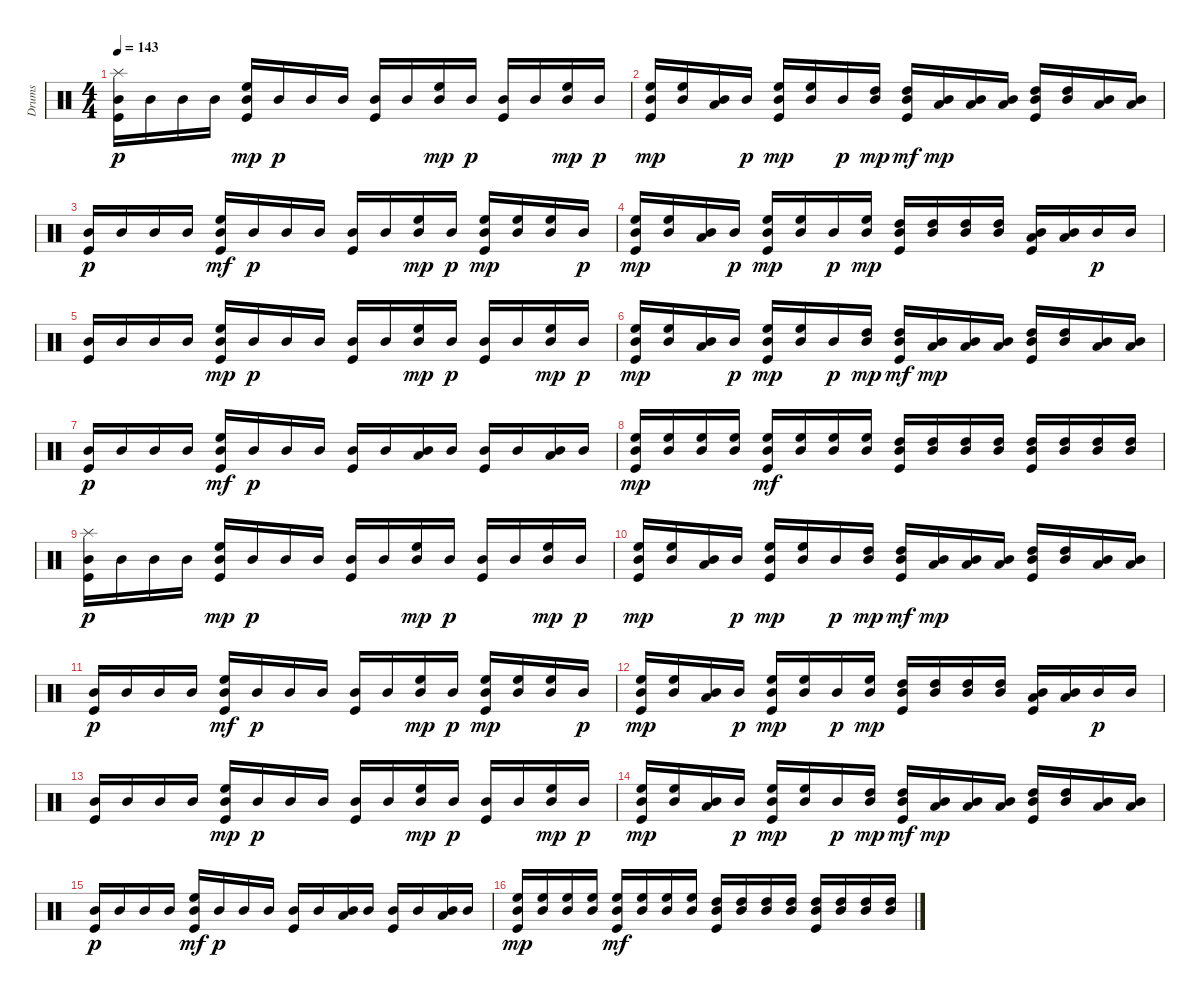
\track ("Drums" "Drums") {instrument percussion}
\staff {score}
\articulation defaults
\ts (4 4)
\tempo 143
\clef neutral
\ks c
("Kick (hit)" "Mid Tom (hit)" "Splash (hit)").16{dy p} "Mid Tom (hit)".16 "Mid Tom (hit)".16 "Mid Tom (hit)".16 ("Kick (hit)" "Mid Tom (hit)" "High Floor Tom (hit)").16{dy mp} "Mid Tom (hit)".16{dy p} "Mid Tom (hit)".16 "Mid Tom (hit)".16 ("Kick (hit)" "Mid Tom (hit)").16 "Mid Tom (hit)".16 ("Mid Tom (hit)" "High Floor Tom (hit)").16{dy mp} "Mid Tom (hit)".16{dy p} ("Kick (hit)" "Mid Tom (hit)").16 "Mid Tom (hit)".16 ("Mid Tom (hit)" "High Floor Tom (hit)").16{dy mp} "Mid Tom (hit)".16{dy p} |
("Kick (hit)" "Mid Tom (hit)" "High Floor Tom (hit)").16{dy mp} ("Mid Tom (hit)" "High Floor Tom (hit)").16 ("Mid Tom (hit)" "Low Tom (hit)").16 "Mid Tom (hit)".16{dy p} ("Kick (hit)" "Mid Tom (hit)" "High Floor Tom (hit)").16{dy mp} ("Mid Tom (hit)" "High Floor Tom (hit)").16 "Mid Tom (hit)".16{dy p} ("Mid Tom (hit)" "High Tom (hit)").16{dy mp} ("Kick (hit)" "Mid Tom (hit)" "High Tom (hit)").16{dy mf} ("Mid Tom (hit)" "Low Tom (hit)").16{dy mp} ("Mid Tom (hit)" "Low Tom (hit)").16 ("Mid Tom (hit)" "Low Tom (hit)").16 ("Kick (hit)" "Mid Tom (hit)" "High Tom (hit)").16 ("Mid Tom (hit)" "High Tom (hit)").16 ("Mid Tom (hit)" "Low Tom (hit)").16 ("Mid Tom (hit)" "Low Tom (hit)").16 |
("Kick (hit)" "Mid Tom (hit)").16{dy p} "Mid Tom (hit)".16 "Mid Tom (hit)".16 "Mid Tom (hit)".16 ("Kick (hit)" "Mid Tom (hit)" "High Floor Tom (hit)").16{dy mf} "Mid Tom (hit)".16{dy p} "Mid Tom (hit)".16 "Mid Tom (hit)".16 ("Kick (hit)" "Mid Tom (hit)").16 "Mid Tom (hit)".16 ("Mid Tom (hit)" "High Floor Tom (hit)").16{dy mp} "Mid Tom (hit)".16{dy p} ("Kick (hit)" "Mid Tom (hit)" "High Floor Tom (hit)").16{dy mp} ("Mid Tom (hit)" "High Floor Tom (hit)").16 ("Mid Tom (hit)" "High Floor Tom (hit)").16 "Mid Tom (hit)".16{dy p} |
("Kick (hit)" "Mid Tom (hit)" "High Floor Tom (hit)").16{dy mp} ("Mid Tom (hit)" "High Floor Tom (hit)").16 ("Mid Tom (hit)" "Low Tom (hit)").16 "Mid Tom (hit)".16{dy p} ("Kick (hit)" "Mid Tom (hit)" "High Floor Tom (hit)").16{dy mp} ("Mid Tom (hit)" "High Floor Tom (hit)").16 "Mid Tom (hit)".16{dy p} ("Mid Tom (hit)" "High Floor Tom (hit)").16{dy mp} ("Kick (hit)" "Mid Tom (hit)" "High Tom (hit)").16 ("Mid Tom (hit)" "High Tom (hit)").16 ("Mid Tom (hit)" "High Tom (hit)").16 ("Mid Tom (hit)" "High Tom (hit)").16 ("Kick (hit)" "Mid Tom (hit)" "Low Tom (hit)").16 ("Mid Tom (hit)" "Low Tom (hit)").16 "Mid Tom (hit)".16{dy p} "Mid Tom (hit)".16 |
("Kick (hit)" "Mid Tom (hit)").16 "Mid Tom (hit)".16 "Mid Tom (hit)".16 "Mid Tom (hit)".16 ("Kick (hit)" "Mid Tom (hit)" "High Floor Tom (hit)").16{dy mp} "Mid Tom (hit)".16{dy p} "Mid Tom (hit)".16 "Mid Tom (hit)".16 ("Kick (hit)" "Mid Tom (hit)").16 "Mid Tom (hit)".16 ("Mid Tom (hit)" "High Floor Tom (hit)").16{dy mp} "Mid Tom (hit)".16{dy p} ("Kick (hit)" "Mid Tom (hit)").16 "Mid Tom (hit)".16 ("Mid Tom (hit)" "High Floor Tom (hit)").16{dy mp} "Mid Tom (hit)".16{dy p} |
("Kick (hit)" "Mid Tom (hit)" "High Floor Tom (hit)").16{dy mp} ("Mid Tom (hit)" "High Floor Tom (hit)").16 ("Mid Tom (hit)" "Low Tom (hit)").16 "Mid Tom (hit)".16{dy p} ("Kick (hit)" "Mid Tom (hit)" "High Floor Tom (hit)").16{dy mp} ("Mid Tom (hit)" "High Floor Tom (hit)").16 "Mid Tom (hit)".16{dy p} ("Mid Tom (hit)" "High Tom (hit)").16{dy mp} ("Kick (hit)" "Mid Tom (hit)" "High Tom (hit)").16{dy mf} ("Mid Tom (hit)" "Low Tom (hit)").16{dy mp} ("Mid Tom (hit)" "Low Tom (hit)").16 ("Mid Tom (hit)" "Low Tom (hit)").16 ("Kick (hit)" "Mid Tom (hit)" "High Tom (hit)").16 ("Mid Tom (hit)" "High Tom (hit)").16 ("Mid Tom (hit)" "Low Tom (hit)").16 ("Mid Tom (hit)" "Low Tom (hit)").16 |
("Kick (hit)" "Mid Tom (hit)").16{dy p} "Mid Tom (hit)".16 "Mid Tom (hit)".16 "Mid Tom (hit)".16 ("Kick (hit)" "Mid Tom (hit)" "High Floor Tom (hit)").16{dy mf} "Mid Tom (hit)".16{dy p} "Mid Tom (hit)".16 "Mid Tom (hit)".16 ("Kick (hit)" "Mid Tom (hit)").16 "Mid Tom (hit)".16 ("Mid Tom (hit)" "Low Tom (hit)").16 "Mid Tom (hit)".16 ("Kick (hit)" "Mid Tom (hit)").16 "Mid Tom (hit)".16 ("Mid Tom (hit)" "Low Tom (hit)").16 "Mid Tom (hit)".16 |
("Kick (hit)" "Mid Tom (hit)" "High Floor Tom (hit)").16{dy mp} ("Mid Tom (hit)" "High Floor Tom (hit)").16 ("Mid Tom (hit)" "High Floor Tom (hit)").16 ("Mid Tom (hit)" "High Floor Tom (hit)").16 ("Kick (hit)" "Mid Tom (hit)" "High Floor Tom (hit)").16{dy mf} ("Mid Tom (hit)" "High Floor Tom (hit)").16 ("Mid Tom (hit)" "High Floor Tom (hit)").16 ("Mid Tom (hit)" "High Floor Tom (hit)").16 ("Kick (hit)" "Mid Tom (hit)" "High Tom (hit)").16 ("Mid Tom (hit)" "High Tom (hit)").16 ("Mid Tom (hit)" "High Tom (hit)").16 ("Mid Tom (hit)" "High Tom (hit)").16 ("Kick (hit)" "Mid Tom (hit)" "High Tom (hit)").16 ("Mid Tom (hit)" "High Tom (hit)").16 ("Mid Tom (hit)" "High Tom (hit)").16 ("Mid Tom (hit)" "High Tom (hit)").16 |
("Kick (hit)" "Mid Tom (hit)" "Splash (hit)").16{dy p} "Mid Tom (hit)".16 "Mid Tom (hit)".16 "Mid Tom (hit)".16 ("Kick (hit)" "Mid Tom (hit)" "High Floor Tom (hit)").16{dy mp} "Mid Tom (hit)".16{dy p} "Mid Tom (hit)".16 "Mid Tom (hit)".16 ("Kick (hit)" "Mid Tom (hit)").16 "Mid Tom (hit)".16 ("Mid Tom (hit)" "High Floor Tom (hit)").16{dy mp} "Mid Tom (hit)".16{dy p} ("Kick (hit)" "Mid Tom (hit)").16 "Mid Tom (hit)".16 ("Mid Tom (hit)" "High Floor Tom (hit)").16{dy mp} "Mid Tom (hit)".16{dy p} |
("Kick (hit)" "Mid Tom (hit)" "High Floor Tom (hit)").16{dy mp} ("Mid Tom (hit)" "High Floor Tom (hit)").16 ("Mid Tom (hit)" "Low Tom (hit)").16 "Mid Tom (hit)".16{dy p} ("Kick (hit)" "Mid Tom (hit)" "High Floor Tom (hit)").16{dy mp} ("Mid Tom (hit)" "High Floor Tom (hit)").16 "Mid Tom (hit)".16{dy p} ("Mid Tom (hit)" "High Tom (hit)").16{dy mp} ("Kick (hit)" "Mid Tom (hit)" "High Tom (hit)").16{dy mf} ("Mid Tom (hit)" "Low Tom (hit)").16{dy mp} ("Mid Tom (hit)" "Low Tom (hit)").16 ("Mid Tom (hit)" "Low Tom (hit)").16 ("Kick (hit)" "Mid Tom (hit)" "High Tom (hit)").16 ("Mid Tom (hit)" "High Tom (hit)").16 ("Mid Tom (hit)" "Low Tom (hit)").16 ("Mid Tom (hit)" "Low Tom (hit)").16 |
("Kick (hit)" "Mid Tom (hit)").16{dy p} "Mid Tom (hit)".16 "Mid Tom (hit)".16 "Mid Tom (hit)".16 ("Kick (hit)" "Mid Tom (hit)" "High Floor Tom (hit)").16{dy mf} "Mid Tom (hit)".16{dy p} "Mid Tom (hit)".16 "Mid Tom (hit)".16 ("Kick (hit)" "Mid Tom (hit)").16 "Mid Tom (hit)".16 ("Mid Tom (hit)" "High Floor Tom (hit)").16{dy mp} "Mid Tom (hit)".16{dy p} ("Kick (hit)" "Mid Tom (hit)" "High Floor Tom (hit)").16{dy mp} ("Mid Tom (hit)" "High Floor Tom (hit)").16 ("Mid Tom (hit)" "High Floor Tom (hit)").16 "Mid Tom (hit)".16{dy p} |
("Kick (hit)" "Mid Tom (hit)" "High Floor Tom (hit)").16{dy mp} ("Mid Tom (hit)" "High Floor Tom (hit)").16 ("Mid Tom (hit)" "Low Tom (hit)").16 "Mid Tom (hit)".16{dy p} ("Kick (hit)" "Mid Tom (hit)" "High Floor Tom (hit)").16{dy mp} ("Mid Tom (hit)" "High Floor Tom (hit)").16 "Mid Tom (hit)".16{dy p} ("Mid Tom (hit)" "High Floor Tom (hit)").16{dy mp} ("Kick (hit)" "Mid Tom (hit)" "High Tom (hit)").16 ("Mid Tom (hit)" "High Tom (hit)").16 ("Mid Tom (hit)" "High Tom (hit)").16 ("Mid Tom (hit)" "High Tom (hit)").16 ("Kick (hit)" "Mid Tom (hit)" "Low Tom (hit)").16 ("Mid Tom (hit)" "Low Tom (hit)").16 "Mid Tom (hit)".16{dy p} "Mid Tom (hit)".16 |
("Kick (hit)" "Mid Tom (hit)").16 "Mid Tom (hit)".16 "Mid Tom (hit)".16 "Mid Tom (hit)".16 ("Kick (hit)" "Mid Tom (hit)" "High Floor Tom (hit)").16{dy mp} "Mid Tom (hit)".16{dy p} "Mid Tom (hit)".16 "Mid Tom (hit)".16 ("Kick (hit)" "Mid Tom (hit)").16 "Mid Tom (hit)".16 ("Mid Tom (hit)" "High Floor Tom (hit)").16{dy mp} "Mid Tom (hit)".16{dy p} ("Kick (hit)" "Mid Tom (hit)").16 "Mid Tom (hit)".16 ("Mid Tom (hit)" "High Floor Tom (hit)").16{dy mp} "Mid Tom (hit)".16{dy p} |
("Kick (hit)" "Mid Tom (hit)" "High Floor Tom (hit)").16{dy mp} ("Mid Tom (hit)" "High Floor Tom (hit)").16 ("Mid Tom (hit)" "Low Tom (hit)").16 "Mid Tom (hit)".16{dy p} ("Kick (hit)" "Mid Tom (hit)" "High Floor Tom (hit)").16{dy mp} ("Mid Tom (hit)" "High Floor Tom (hit)").16 "Mid Tom (hit)".16{dy p} ("Mid Tom (hit)" "High Tom (hit)").16{dy mp} ("Kick (hit)" "Mid Tom (hit)" "High Tom (hit)").16{dy mf} ("Mid Tom (hit)" "Low Tom (hit)").16{dy mp} ("Mid Tom (hit)" "Low Tom (hit)").16 ("Mid Tom (hit)" "Low Tom (hit)").16 ("Kick (hit)" "Mid Tom (hit)" "High Tom (hit)").16 ("Mid Tom (hit)" "High Tom (hit)").16 ("Mid Tom (hit)" "Low Tom (hit)").16 ("Mid Tom (hit)" "Low Tom (hit)").16 |
("Kick (hit)" "Mid Tom (hit)").16{dy p} "Mid Tom (hit)".16 "Mid Tom (hit)".16 "Mid Tom (hit)".16 ("Kick (hit)" "Mid Tom (hit)" "High Floor Tom (hit)").16{dy mf} "Mid Tom (hit)".16{dy p} "Mid Tom (hit)".16 "Mid Tom (hit)".16 ("Kick (hit)" "Mid Tom (hit)").16 "Mid Tom (hit)".16 ("Mid Tom (hit)" "Low Tom (hit)").16 "Mid Tom (hit)".16 ("Kick (hit)" "Mid Tom (hit)").16 "Mid Tom (hit)".16 ("Mid Tom (hit)" "Low Tom (hit)").16 "Mid Tom (hit)".16 |
("Kick (hit)" "Mid Tom (hit)" "High Floor Tom (hit)").16{dy mp} ("Mid Tom (hit)" "High Floor Tom (hit)").16 ("Mid Tom (hit)" "High Floor Tom (hit)").16 ("Mid Tom (hit)" "High Floor Tom (hit)").16 ("Kick (hit)" "Mid Tom (hit)" "High Floor Tom (hit)").16{dy mf} ("Mid Tom (hit)" "High Floor Tom (hit)").16 ("Mid Tom (hit)" "High Floor Tom (hit)").16 ("Mid Tom (hit)" "High Floor Tom (hit)").16 ("Kick (hit)" "Mid Tom (hit)" "High Tom (hit)").16 ("Mid Tom (hit)" "High Tom (hit)").16 ("Mid Tom (hit)" "High Tom (hit)").16 ("Mid Tom (hit)" "High Tom (hit)").16 ("Kick (hit)" "Mid Tom (hit)" "High Tom (hit)").16 ("Mid Tom (hit)" "High Tom (hit)").16 ("Mid Tom (hit)" "High Tom (hit)").16 ("Mid Tom (hit)" "High Tom (hit)").16
